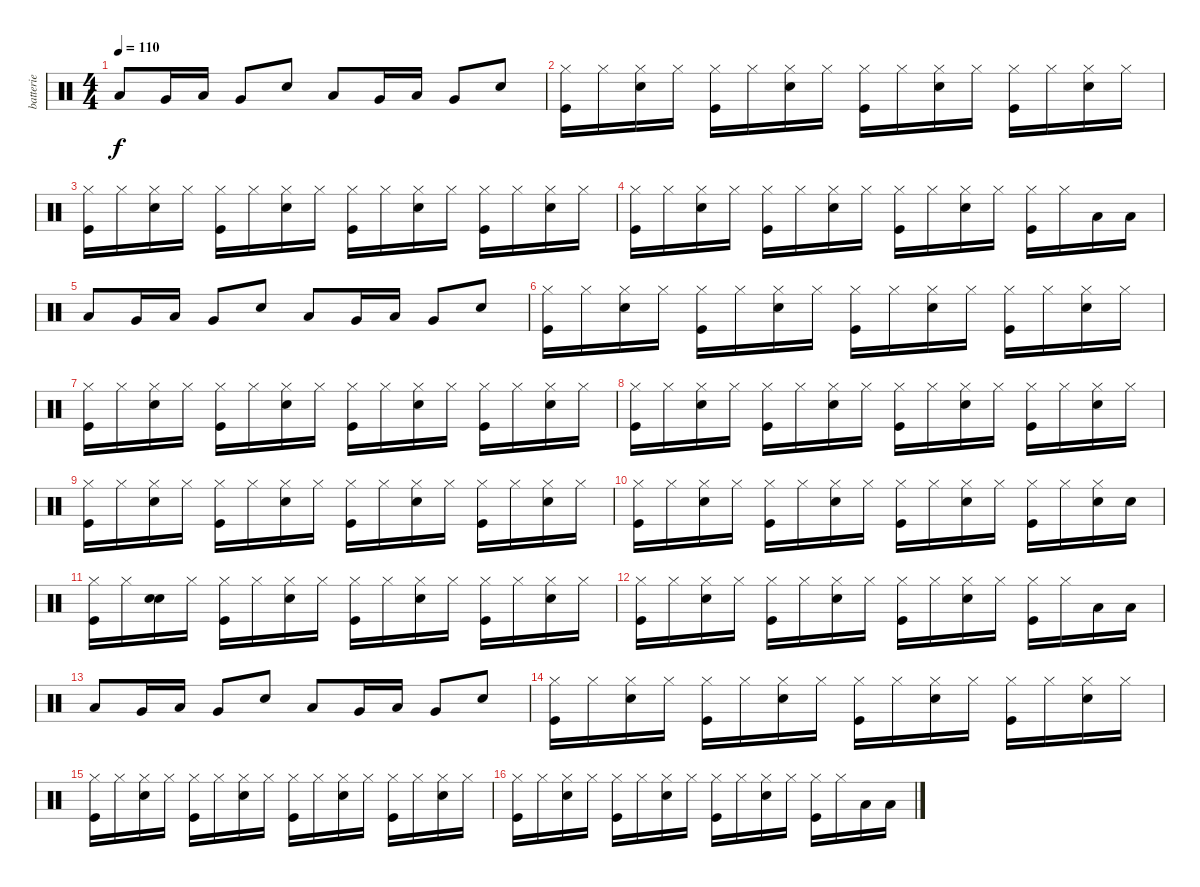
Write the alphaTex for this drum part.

\track ("batterie" "batterie") {instrument percussion}
\staff {score}
\articulation defaults
\ts (4 4)
\tempo 110
\clef neutral
\ks c "Low Tom (hit)".8{dy f} "Very Low Tom (hit)".16 "Low Floor Tom (hit)".16 "Very Low Tom (hit)".8 "Snare (hit) 2".8 "Low Tom (hit)".8 "Very Low Tom (hit)".16 "Low Floor Tom (hit)".16 "Very Low Tom (hit)".8 "Snare (hit) 2".8
|
("Hi-Hat (closed)" "Kick (hit)").16 "Hi-Hat (closed)".16 ("Hi-Hat (closed)" "Snare (hit) 2").16 "Hi-Hat (closed)".16 ("Hi-Hat (closed)" "Kick (hit)").16 "Hi-Hat (closed)".16 ("Hi-Hat (closed)" "Snare (hit) 2").16 "Hi-Hat (closed)".16 ("Hi-Hat (closed)" "Kick (hit)").16 "Hi-Hat (closed)".16 ("Hi-Hat (closed)" "Snare (hit) 2").16 "Hi-Hat (closed)".16 ("Hi-Hat (closed)" "Kick (hit)").16 "Hi-Hat (closed)".16 ("Hi-Hat (closed)" "Snare (hit) 2").16 "Hi-Hat (closed)".16 |
("Hi-Hat (closed)" "Kick (hit)").16 "Hi-Hat (closed)".16 ("Hi-Hat (closed)" "Snare (hit) 2").16 "Hi-Hat (closed)".16 ("Hi-Hat (closed)" "Kick (hit)").16 "Hi-Hat (closed)".16 ("Hi-Hat (closed)" "Snare (hit) 2").16 "Hi-Hat (closed)".16 ("Hi-Hat (closed)" "Kick (hit)").16 "Hi-Hat (closed)".16 ("Hi-Hat (closed)" "Snare (hit) 2").16 "Hi-Hat (closed)".16 ("Hi-Hat (closed)" "Kick (hit)").16 "Hi-Hat (closed)".16 ("Hi-Hat (closed)" "Snare (hit) 2").16 "Hi-Hat (closed)".16 |
("Hi-Hat (closed)" "Kick (hit)").16 "Hi-Hat (closed)".16 ("Hi-Hat (closed)" "Snare (hit) 2").16 "Hi-Hat (closed)".16 ("Hi-Hat (closed)" "Kick (hit)").16 "Hi-Hat (closed)".16 ("Hi-Hat (closed)" "Snare (hit) 2").16 "Hi-Hat (closed)".16 ("Hi-Hat (closed)" "Kick (hit)").16 "Hi-Hat (closed)".16 ("Hi-Hat (closed)" "Snare (hit) 2").16 "Hi-Hat (closed)".16 ("Hi-Hat (closed)" "Kick (hit)").16 "Hi-Hat (closed)".16 "Low Floor Tom (hit)".16 "Low Floor Tom (hit)".16 |
"Low Tom (hit)".8 "Very Low Tom (hit)".16 "Low Floor Tom (hit)".16 "Very Low Tom (hit)".8 "Snare (hit) 2".8 "Low Tom (hit)".8 "Very Low Tom (hit)".16 "Low Floor Tom (hit)".16 "Very Low Tom (hit)".8 "Snare (hit) 2".8 |
("Hi-Hat (closed)" "Kick (hit)").16 "Hi-Hat (closed)".16 ("Hi-Hat (closed)" "Snare (hit) 2").16 "Hi-Hat (closed)".16 ("Hi-Hat (closed)" "Kick (hit)").16 "Hi-Hat (closed)".16 ("Hi-Hat (closed)" "Snare (hit) 2").16 "Hi-Hat (closed)".16 ("Hi-Hat (closed)" "Kick (hit)").16 "Hi-Hat (closed)".16 ("Hi-Hat (closed)" "Snare (hit) 2").16 "Hi-Hat (closed)".16 ("Hi-Hat (closed)" "Kick (hit)").16 "Hi-Hat (closed)".16 ("Hi-Hat (closed)" "Snare (hit) 2").16 "Hi-Hat (closed)".16 |
("Hi-Hat (closed)" "Kick (hit)").16 "Hi-Hat (closed)".16 ("Hi-Hat (closed)" "Snare (hit) 2").16 "Hi-Hat (closed)".16 ("Hi-Hat (closed)" "Kick (hit)").16 "Hi-Hat (closed)".16 ("Hi-Hat (closed)" "Snare (hit) 2").16 "Hi-Hat (closed)".16 ("Hi-Hat (closed)" "Kick (hit)").16 "Hi-Hat (closed)".16 ("Hi-Hat (closed)" "Snare (hit) 2").16 "Hi-Hat (closed)".16 ("Hi-Hat (closed)" "Kick (hit)").16 "Hi-Hat (closed)".16 ("Hi-Hat (closed)" "Snare (hit) 2").16 "Hi-Hat (closed)".16 |
("Hi-Hat (closed)" "Kick (hit)").16 "Hi-Hat (closed)".16 ("Hi-Hat (closed)" "Snare (hit) 2").16 "Hi-Hat (closed)".16 ("Hi-Hat (closed)" "Kick (hit)").16 "Hi-Hat (closed)".16 ("Hi-Hat (closed)" "Snare (hit) 2").16 "Hi-Hat (closed)".16 ("Hi-Hat (closed)" "Kick (hit)").16 "Hi-Hat (closed)".16 ("Hi-Hat (closed)" "Snare (hit) 2").16 "Hi-Hat (closed)".16 ("Hi-Hat (closed)" "Kick (hit)").16 "Hi-Hat (closed)".16 ("Hi-Hat (closed)" "Snare (hit) 2").16 "Hi-Hat (closed)".16 |
("Hi-Hat (closed)" "Kick (hit)").16 "Hi-Hat (closed)".16 ("Hi-Hat (closed)" "Snare (hit) 2").16 "Hi-Hat (closed)".16 ("Hi-Hat (closed)" "Kick (hit)").16 "Hi-Hat (closed)".16 ("Hi-Hat (closed)" "Snare (hit) 2").16 "Hi-Hat (closed)".16 ("Hi-Hat (closed)" "Kick (hit)").16 "Hi-Hat (closed)".16 ("Hi-Hat (closed)" "Snare (hit) 2").16 "Hi-Hat (closed)".16 ("Hi-Hat (closed)" "Kick (hit)").16 "Hi-Hat (closed)".16 ("Hi-Hat (closed)" "Snare (hit) 2").16 "Hi-Hat (closed)".16 |
("Hi-Hat (closed)" "Kick (hit)").16 "Hi-Hat (closed)".16 ("Hi-Hat (closed)" "Snare (hit) 2").16 "Hi-Hat (closed)".16 ("Hi-Hat (closed)" "Kick (hit)").16 "Hi-Hat (closed)".16 ("Hi-Hat (closed)" "Snare (hit) 2").16 "Hi-Hat (closed)".16 ("Hi-Hat (closed)" "Kick (hit)").16 "Hi-Hat (closed)".16 ("Hi-Hat (closed)" "Snare (hit) 2").16 "Hi-Hat (closed)".16 ("Hi-Hat (closed)" "Kick (hit)").16 "Hi-Hat (closed)".16 ("Hi-Hat (closed)" "Snare (hit) 2").16 "Snare (hit)".16 |
("Hi-Hat (closed)" "Kick (hit)").16 "Hi-Hat (closed)".16 ("Snare (hit)" "Snare (hit) 2").16 "Hi-Hat (closed)".16 ("Hi-Hat (closed)" "Kick (hit)").16 "Hi-Hat (closed)".16 ("Hi-Hat (closed)" "Snare (hit) 2").16 "Hi-Hat (closed)".16 ("Hi-Hat (closed)" "Kick (hit)").16 "Hi-Hat (closed)".16 ("Hi-Hat (closed)" "Snare (hit) 2").16 "Hi-Hat (closed)".16 ("Hi-Hat (closed)" "Kick (hit)").16 "Hi-Hat (closed)".16 ("Hi-Hat (closed)" "Snare (hit) 2").16 "Hi-Hat (closed)".16 |
("Hi-Hat (closed)" "Kick (hit)").16 "Hi-Hat (closed)".16 ("Hi-Hat (closed)" "Snare (hit) 2").16 "Hi-Hat (closed)".16 ("Hi-Hat (closed)" "Kick (hit)").16 "Hi-Hat (closed)".16 ("Hi-Hat (closed)" "Snare (hit) 2").16 "Hi-Hat (closed)".16 ("Hi-Hat (closed)" "Kick (hit)").16 "Hi-Hat (closed)".16 ("Hi-Hat (closed)" "Snare (hit) 2").16 "Hi-Hat (closed)".16 ("Hi-Hat (closed)" "Kick (hit)").16 "Hi-Hat (closed)".16 "Low Floor Tom (hit)".16 "Low Floor Tom (hit)".16 |
"Low Tom (hit)".8 "Very Low Tom (hit)".16 "Low Floor Tom (hit)".16 "Very Low Tom (hit)".8 "Snare (hit) 2".8 "Low Tom (hit)".8 "Very Low Tom (hit)".16 "Low Floor Tom (hit)".16 "Very Low Tom (hit)".8 "Snare (hit) 2".8 |
("Hi-Hat (closed)" "Kick (hit)").16 "Hi-Hat (closed)".16 ("Hi-Hat (closed)" "Snare (hit) 2").16 "Hi-Hat (closed)".16 ("Hi-Hat (closed)" "Kick (hit)").16 "Hi-Hat (closed)".16 ("Hi-Hat (closed)" "Snare (hit) 2").16 "Hi-Hat (closed)".16 ("Hi-Hat (closed)" "Kick (hit)").16 "Hi-Hat (closed)".16 ("Hi-Hat (closed)" "Snare (hit) 2").16 "Hi-Hat (closed)".16 ("Hi-Hat (closed)" "Kick (hit)").16 "Hi-Hat (closed)".16 ("Hi-Hat (closed)" "Snare (hit) 2").16 "Hi-Hat (closed)".16 |
("Hi-Hat (closed)" "Kick (hit)").16 "Hi-Hat (closed)".16 ("Hi-Hat (closed)" "Snare (hit) 2").16 "Hi-Hat (closed)".16 ("Hi-Hat (closed)" "Kick (hit)").16 "Hi-Hat (closed)".16 ("Hi-Hat (closed)" "Snare (hit) 2").16 "Hi-Hat (closed)".16 ("Hi-Hat (closed)" "Kick (hit)").16 "Hi-Hat (closed)".16 ("Hi-Hat (closed)" "Snare (hit) 2").16 "Hi-Hat (closed)".16 ("Hi-Hat (closed)" "Kick (hit)").16 "Hi-Hat (closed)".16 ("Hi-Hat (closed)" "Snare (hit) 2").16 "Hi-Hat (closed)".16 |
("Hi-Hat (closed)" "Kick (hit)").16 "Hi-Hat (closed)".16 ("Hi-Hat (closed)" "Snare (hit) 2").16 "Hi-Hat (closed)".16 ("Hi-Hat (closed)" "Kick (hit)").16 "Hi-Hat (closed)".16 ("Hi-Hat (closed)" "Snare (hit) 2").16 "Hi-Hat (closed)".16 ("Hi-Hat (closed)" "Kick (hit)").16 "Hi-Hat (closed)".16 ("Hi-Hat (closed)" "Snare (hit) 2").16 "Hi-Hat (closed)".16 ("Hi-Hat (closed)" "Kick (hit)").16 "Hi-Hat (closed)".16 "Low Floor Tom (hit)".16 "Low Floor Tom (hit)".16
